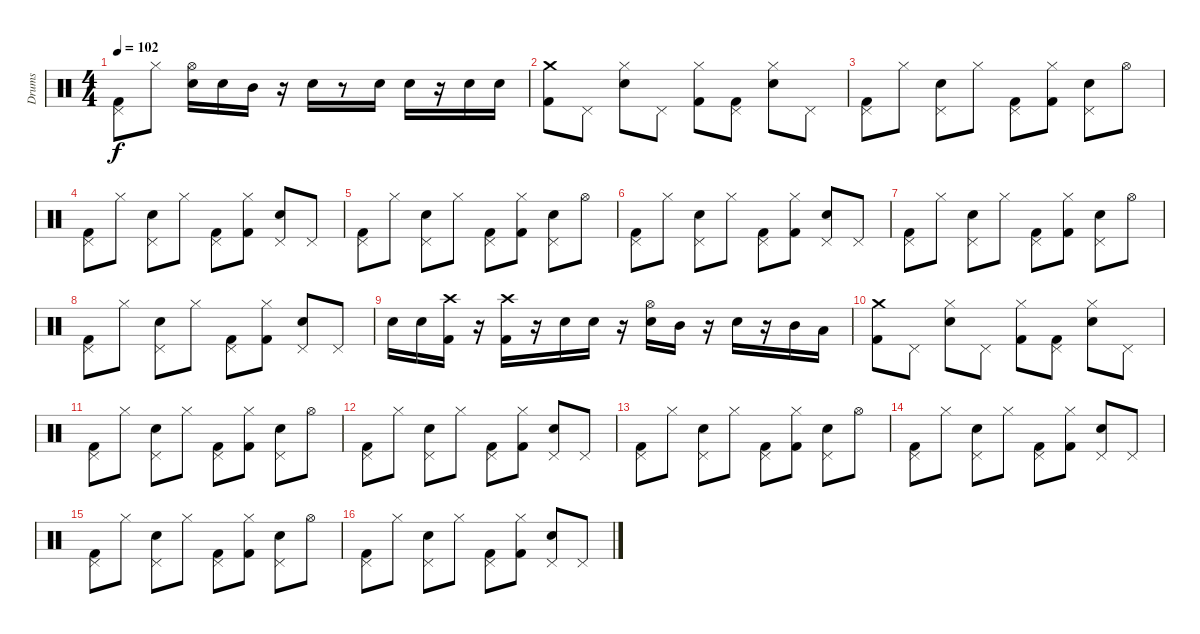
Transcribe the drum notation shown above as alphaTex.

\track ("Drums" "Drums") {instrument percussion}
\staff {score}
\articulation defaults
\ts (4 4)
\tempo 102
\clef neutral
\ks c
("Pedal Hi-Hat (hit)" "Kick (hit) 2").8{dy f} "Hi-Hat (closed)".8 ("Hi-Hat (open)" "Electric Snare (hit)").16 "Electric Snare (hit)".16 "Mid Tom (hit)".16 r.16 "Electric Snare (hit)".16 r.8 "Electric Snare (hit)".16 "Electric Snare (hit)".16 r.16 "Electric Snare (hit)".16 "Electric Snare (hit)".16 |
("Crash medium (hit)" "Kick (hit) 2").8 "Pedal Hi-Hat (hit)".8 ("Hi-Hat (closed)" "Electric Snare (hit)").8 "Pedal Hi-Hat (hit)".8 ("Hi-Hat (closed)" "Kick (hit) 2").8 ("Pedal Hi-Hat (hit)" "Kick (hit) 2").8 ("Hi-Hat (closed)" "Electric Snare (hit)").8 "Pedal Hi-Hat (hit)".8 |
("Pedal Hi-Hat (hit)" "Kick (hit) 2").8 "Hi-Hat (closed)".8 ("Pedal Hi-Hat (hit)" "Electric Snare (hit)").8 "Hi-Hat (closed)".8 ("Pedal Hi-Hat (hit)" "Kick (hit) 2").8 ("Hi-Hat (closed)" "Kick (hit) 2").8 ("Pedal Hi-Hat (hit)" "Electric Snare (hit)").8 "Hi-Hat (open)".8 |
("Pedal Hi-Hat (hit)" "Kick (hit) 2").8 "Hi-Hat (closed)".8 ("Pedal Hi-Hat (hit)" "Electric Snare (hit)").8 "Hi-Hat (closed)".8 ("Pedal Hi-Hat (hit)" "Kick (hit) 2").8 ("Hi-Hat (closed)" "Kick (hit) 2").8 ("Pedal Hi-Hat (hit)" "Electric Snare (hit)").8 "Pedal Hi-Hat (hit)".8 |
("Pedal Hi-Hat (hit)" "Kick (hit) 2").8 "Hi-Hat (closed)".8 ("Pedal Hi-Hat (hit)" "Electric Snare (hit)").8 "Hi-Hat (closed)".8 ("Pedal Hi-Hat (hit)" "Kick (hit) 2").8 ("Hi-Hat (closed)" "Kick (hit) 2").8 ("Pedal Hi-Hat (hit)" "Electric Snare (hit)").8 "Hi-Hat (open)".8 |
("Pedal Hi-Hat (hit)" "Kick (hit) 2").8 "Hi-Hat (closed)".8 ("Pedal Hi-Hat (hit)" "Electric Snare (hit)").8 "Hi-Hat (closed)".8 ("Pedal Hi-Hat (hit)" "Kick (hit) 2").8 ("Hi-Hat (closed)" "Kick (hit) 2").8 ("Pedal Hi-Hat (hit)" "Electric Snare (hit)").8 "Pedal Hi-Hat (hit)".8 |
("Pedal Hi-Hat (hit)" "Kick (hit) 2").8 "Hi-Hat (closed)".8 ("Pedal Hi-Hat (hit)" "Electric Snare (hit)").8 "Hi-Hat (closed)".8 ("Pedal Hi-Hat (hit)" "Kick (hit) 2").8 ("Hi-Hat (closed)" "Kick (hit) 2").8 ("Pedal Hi-Hat (hit)" "Electric Snare (hit)").8 "Hi-Hat (open)".8 |
("Pedal Hi-Hat (hit)" "Kick (hit) 2").8 "Hi-Hat (closed)".8 ("Pedal Hi-Hat (hit)" "Electric Snare (hit)").8 "Hi-Hat (closed)".8 ("Pedal Hi-Hat (hit)" "Kick (hit) 2").8 ("Hi-Hat (closed)" "Kick (hit) 2").8 ("Pedal Hi-Hat (hit)" "Electric Snare (hit)").8 "Pedal Hi-Hat (hit)".8 |
"Electric Snare (hit)".16 "Electric Snare (hit)".16 ("Kick (hit) 2" "Crash high (hit)").16 r.16 ("Kick (hit) 2" "Crash high (hit)").16 r.16 "Electric Snare (hit)".16 "Electric Snare (hit)".16 r.16 ("Hi-Hat (open)" "Electric Snare (hit)").16 "Mid Tom (hit)".16 r.16 "Electric Snare (hit)".16 r.16 "Mid Tom (hit)".16 "Low Tom (hit)".16 |
("Crash medium (hit)" "Kick (hit) 2").8 "Pedal Hi-Hat (hit)".8 ("Hi-Hat (closed)" "Electric Snare (hit)").8 "Pedal Hi-Hat (hit)".8 ("Hi-Hat (closed)" "Kick (hit) 2").8 ("Pedal Hi-Hat (hit)" "Kick (hit) 2").8 ("Hi-Hat (closed)" "Electric Snare (hit)").8 "Pedal Hi-Hat (hit)".8 |
("Pedal Hi-Hat (hit)" "Kick (hit) 2").8 "Hi-Hat (closed)".8 ("Pedal Hi-Hat (hit)" "Electric Snare (hit)").8 "Hi-Hat (closed)".8 ("Pedal Hi-Hat (hit)" "Kick (hit) 2").8 ("Hi-Hat (closed)" "Kick (hit) 2").8 ("Pedal Hi-Hat (hit)" "Electric Snare (hit)").8 "Hi-Hat (open)".8 |
("Pedal Hi-Hat (hit)" "Kick (hit) 2").8 "Hi-Hat (closed)".8 ("Pedal Hi-Hat (hit)" "Electric Snare (hit)").8 "Hi-Hat (closed)".8 ("Pedal Hi-Hat (hit)" "Kick (hit) 2").8 ("Hi-Hat (closed)" "Kick (hit) 2").8 ("Pedal Hi-Hat (hit)" "Electric Snare (hit)").8 "Pedal Hi-Hat (hit)".8 |
("Pedal Hi-Hat (hit)" "Kick (hit) 2").8 "Hi-Hat (closed)".8 ("Pedal Hi-Hat (hit)" "Electric Snare (hit)").8 "Hi-Hat (closed)".8 ("Pedal Hi-Hat (hit)" "Kick (hit) 2").8 ("Hi-Hat (closed)" "Kick (hit) 2").8 ("Pedal Hi-Hat (hit)" "Electric Snare (hit)").8 "Hi-Hat (open)".8 |
("Pedal Hi-Hat (hit)" "Kick (hit) 2").8 "Hi-Hat (closed)".8 ("Pedal Hi-Hat (hit)" "Electric Snare (hit)").8 "Hi-Hat (closed)".8 ("Pedal Hi-Hat (hit)" "Kick (hit) 2").8 ("Hi-Hat (closed)" "Kick (hit) 2").8 ("Pedal Hi-Hat (hit)" "Electric Snare (hit)").8 "Pedal Hi-Hat (hit)".8 |
("Pedal Hi-Hat (hit)" "Kick (hit) 2").8 "Hi-Hat (closed)".8 ("Pedal Hi-Hat (hit)" "Electric Snare (hit)").8 "Hi-Hat (closed)".8 ("Pedal Hi-Hat (hit)" "Kick (hit) 2").8 ("Hi-Hat (closed)" "Kick (hit) 2").8 ("Pedal Hi-Hat (hit)" "Electric Snare (hit)").8 "Hi-Hat (open)".8 |
("Pedal Hi-Hat (hit)" "Kick (hit) 2").8 "Hi-Hat (closed)".8 ("Pedal Hi-Hat (hit)" "Electric Snare (hit)").8 "Hi-Hat (closed)".8 ("Pedal Hi-Hat (hit)" "Kick (hit) 2").8 ("Hi-Hat (closed)" "Kick (hit) 2").8 ("Pedal Hi-Hat (hit)" "Electric Snare (hit)").8 "Pedal Hi-Hat (hit)".8
